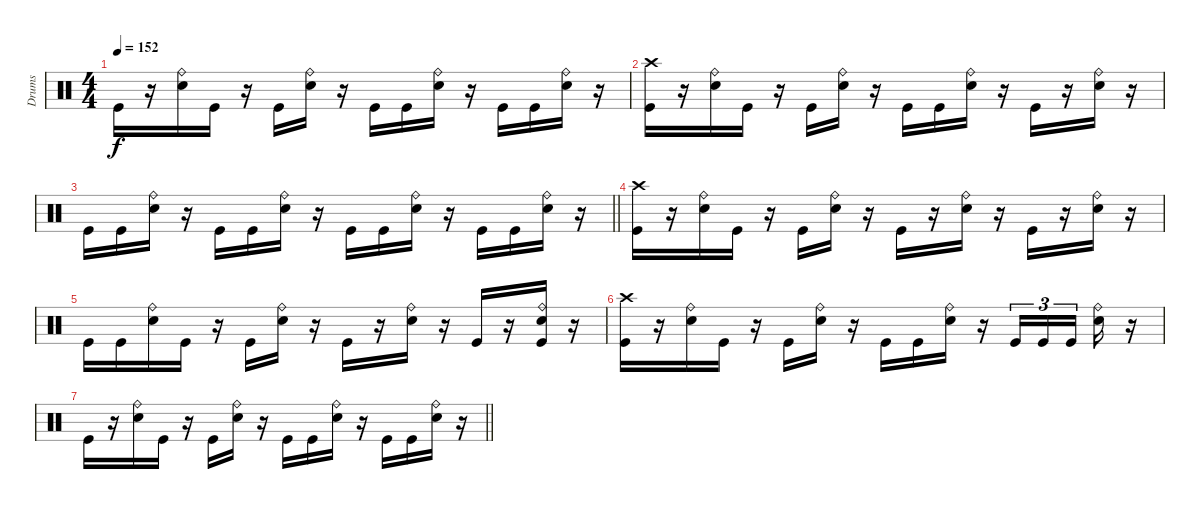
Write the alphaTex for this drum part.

\track ("Drums" "Drums") {instrument percussion}
\staff
\articulation defaults
\ts (4 4)
\tempo 152
\clef neutral
\ks c "Kick (hit)".16{dy f}
r.16 ("Ride (bell)" "Electric Snare (hit)").16 "Kick (hit)".16 r.16 "Kick (hit)".16 ("Ride (bell)" "Electric Snare (hit)").16 r.16 "Kick (hit)".16 "Kick (hit)".16 ("Ride (bell)" "Electric Snare (hit)").16 r.16 "Kick (hit)".16 "Kick (hit)".16 ("Ride (bell)" "Electric Snare (hit)").16 r.16 |
("Crash high (hit)" "Kick (hit)").16 r.16 ("Ride (bell)" "Electric Snare (hit)").16 "Kick (hit)".16 r.16 "Kick (hit)".16 ("Ride (bell)" "Electric Snare (hit)").16 r.16 "Kick (hit)".16 "Kick (hit)".16 ("Ride (bell)" "Electric Snare (hit)").16 r.16 "Kick (hit)".16 r.16 ("Ride (bell)" "Electric Snare (hit)").16 r.16 |
\barLineRight lightlight "Kick (hit)".16 "Kick (hit)".16
("Ride (bell)" "Electric Snare (hit)").16 r.16 "Kick (hit)".16 "Kick (hit)".16 ("Ride (bell)" "Electric Snare (hit)").16 r.16 "Kick (hit)".16 "Kick (hit)".16 ("Ride (bell)" "Electric Snare (hit)").16 r.16 "Kick (hit)".16 "Kick (hit)".16 ("Ride (bell)" "Electric Snare (hit)").16 r.16 |
("Crash high (hit)" "Kick (hit)").16 r.16 ("Ride (bell)" "Electric Snare (hit)").16 "Kick (hit)".16 r.16 "Kick (hit)".16 ("Ride (bell)" "Electric Snare (hit)").16 r.16 "Kick (hit)".16 r.16 ("Ride (bell)" "Electric Snare (hit)").16 r.16 "Kick (hit)".16 r.16 ("Ride (bell)" "Electric Snare (hit)").16 r.16 |
"Kick (hit)".16 "Kick (hit)".16 ("Ride (bell)" "Electric Snare (hit)").16 "Kick (hit)".16 r.16 "Kick (hit)".16 ("Ride (bell)" "Electric Snare (hit)").16 r.16 "Kick (hit)".16 r.16 ("Ride (bell)" "Electric Snare (hit)").16 r.16 "Kick (hit)".16 r.16 ("Ride (bell)" "Electric Snare (hit)" "Kick (hit)").16 r.16 |
("Crash high (hit)" "Kick (hit)").16 r.16 ("Ride (bell)" "Electric Snare (hit)").16 "Kick (hit)".16 r.16 "Kick (hit)".16 ("Ride (bell)" "Electric Snare (hit)").16 r.16 "Kick (hit)".16 "Kick (hit)".16 ("Ride (bell)" "Electric Snare (hit)").16 r.16 "Kick (hit)".16{tu (3 2)} "Kick (hit)".16{tu (3 2)} "Kick (hit)".16{tu (3 2) beam splitsecondary} ("Ride (bell)" "Electric Snare (hit)").16 r.16 |
\barLineRight lightlight "Kick (hit)".16
r.16 ("Ride (bell)" "Electric Snare (hit)").16 "Kick (hit)".16 r.16 "Kick (hit)".16 ("Ride (bell)" "Electric Snare (hit)").16 r.16 "Kick (hit)".16 "Kick (hit)".16 ("Ride (bell)" "Electric Snare (hit)").16 r.16 "Kick (hit)".16 "Kick (hit)".16 ("Ride (bell)" "Electric Snare (hit)").16 r.16
